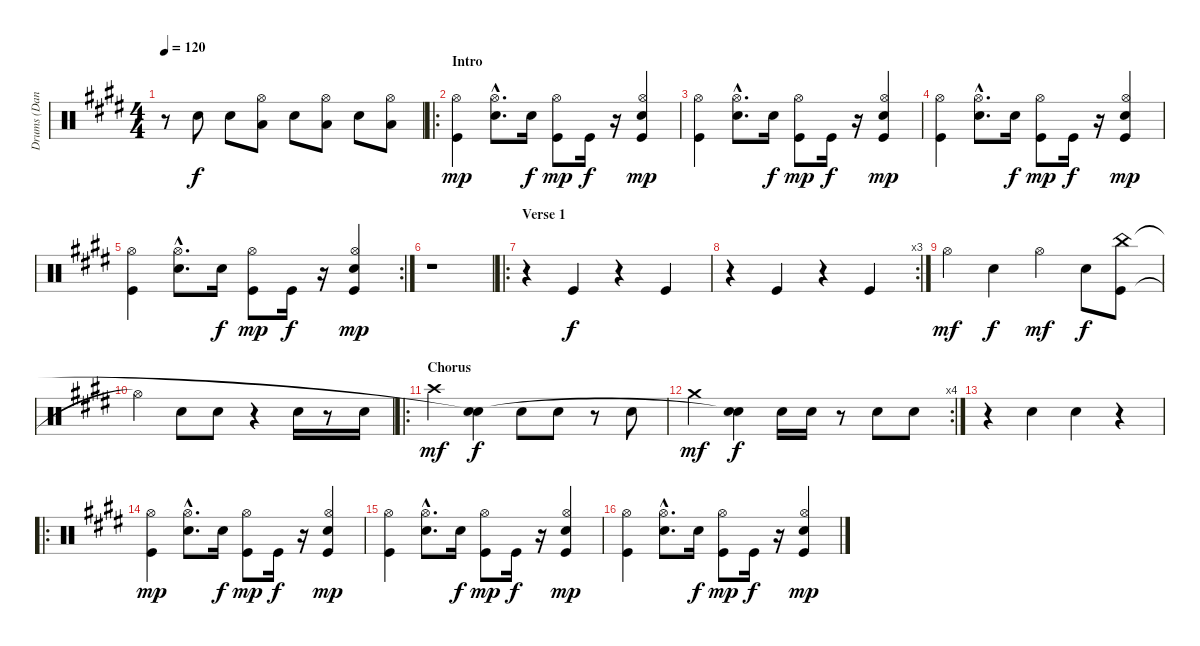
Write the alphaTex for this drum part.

\track ("Drums (Dan Rieser)" "Drums (Dan") {instrument percussion}
\staff {score}
\articulation defaults
\ts (4 4)
\tempo 120
\clef neutral
\ks e
r.8{dy f} "Snare (hit) 2".8 "Snare (hit) 2".8 ("Low Floor Tom (hit)" "Hi-Hat (open)").8 "Snare (hit) 2".8 ("Low Floor Tom (hit)" "Hi-Hat (open)").8 "Snare (hit) 2".8 ("Low Floor Tom (hit)" "Hi-Hat (open)").8 |
\ro
\section ("" "Intro")
("Kick (hit)" "Hi-Hat (open)").4{dy mp} ("Snare (hit) 2"{hac} "Hi-Hat (open)"{hac}).8{d} "Snare (hit) 2".16{dy f} ("Kick (hit)" "Hi-Hat (open)").8{dy mp} "Kick (hit)".16{dy f} r.16 ("Kick (hit)" "Snare (hit) 2" "Hi-Hat (open)").4{dy mp} |
("Kick (hit)" "Hi-Hat (open)").4 ("Snare (hit) 2"{hac} "Hi-Hat (open)"{hac}).8{d} "Snare (hit) 2".16{dy f} ("Kick (hit)" "Hi-Hat (open)").8{dy mp} "Kick (hit)".16{dy f} r.16 ("Kick (hit)" "Snare (hit) 2" "Hi-Hat (open)").4{dy mp} |
("Kick (hit)" "Hi-Hat (open)").4 ("Snare (hit) 2"{hac} "Hi-Hat (open)"{hac}).8{d} "Snare (hit) 2".16{dy f} ("Kick (hit)" "Hi-Hat (open)").8{dy mp} "Kick (hit)".16{dy f} r.16 ("Kick (hit)" "Snare (hit) 2" "Hi-Hat (open)").4{dy mp} |
\rc 2
("Kick (hit)" "Hi-Hat (open)").4 ("Snare (hit) 2"{hac} "Hi-Hat (open)"{hac}).8{d} "Snare (hit) 2".16{dy f} ("Kick (hit)" "Hi-Hat (open)").8{dy mp} "Kick (hit)".16{dy f} r.16 ("Kick (hit)" "Snare (hit) 2" "Hi-Hat (open)").4{dy mp} |
r.1 |
\ro
\section ("" "Verse 1")
r.4 "Kick (hit)".4{dy f} r.4 "Kick (hit)".4 |
\rc 3
r.4 "Kick (hit)".4 r.4 "Kick (hit)".4 |
"Hi-Hat (open)".4{dy mf} "Snare (hit) 2".4{dy f} "Hi-Hat (open)".4{dy mf} "Snare (hit) 2".8{dy f} ("Kick (hit)" "China (hit)").8 |
"Hi-Hat (open)"{t}.4 "Snare (hit) 2".8 "Snare (hit) 2".8 r.4 "Snare (hit) 2".16 r.8 "Snare (hit) 2".16 |
\ro
\section ("" "Chorus")
"Crash high (hit)".4{dy mf} ("Snare (hit) 2" "Snare (hit)"{t}).4{dy f} "Snare (hit) 2".8 "Snare (hit) 2".8 r.8 "Snare (hit) 2".8 |
\rc 4 "Crash medium (hit)".4{dy mf}
("Snare (hit) 2" "Snare (hit)"{t}).4{dy f} "Snare (hit) 2".16 "Snare (hit) 2".16 r.8 "Snare (hit) 2".8 "Snare (hit) 2".8 |
r.4 "Snare (hit) 2".4 "Snare (hit) 2".4 r.4 |
\ro
("Kick (hit)" "Hi-Hat (open)").4{dy mp} ("Snare (hit) 2"{hac} "Hi-Hat (open)"{hac}).8{d} "Snare (hit) 2".16{dy f} ("Kick (hit)" "Hi-Hat (open)").8{dy mp} "Kick (hit)".16{dy f} r.16 ("Kick (hit)" "Snare (hit) 2" "Hi-Hat (open)").4{dy mp} |
("Kick (hit)" "Hi-Hat (open)").4 ("Snare (hit) 2"{hac} "Hi-Hat (open)"{hac}).8{d} "Snare (hit) 2".16{dy f} ("Kick (hit)" "Hi-Hat (open)").8{dy mp} "Kick (hit)".16{dy f} r.16 ("Kick (hit)" "Snare (hit) 2" "Hi-Hat (open)").4{dy mp} |
("Kick (hit)" "Hi-Hat (open)").4 ("Snare (hit) 2"{hac} "Hi-Hat (open)"{hac}).8{d} "Snare (hit) 2".16{dy f} ("Kick (hit)" "Hi-Hat (open)").8{dy mp} "Kick (hit)".16{dy f} r.16 ("Kick (hit)" "Snare (hit) 2" "Hi-Hat (open)").4{dy mp}
